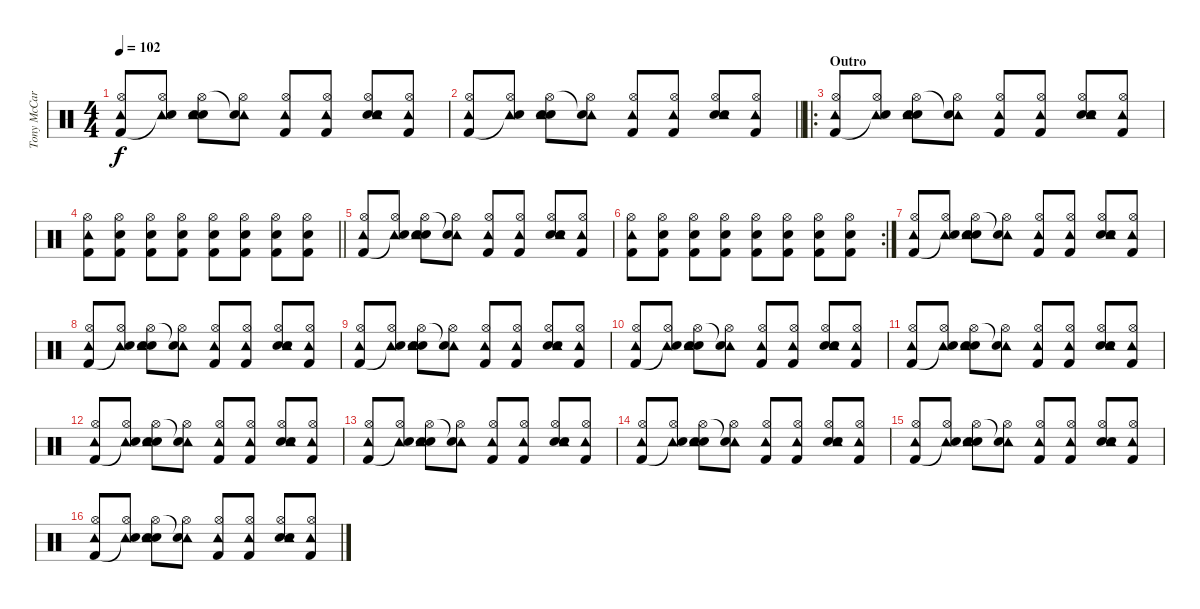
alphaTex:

\track ("Tony McCaroll" "Tony McCar") {instrument percussion}
\staff {score}
\articulation defaults
\ts (4 4)
\tempo 102
\clef neutral
\ks c
("Tambourine (hit)" "Hi-Hat (open)" "Kick (hit) 2").8{dy f} ("Tambourine (hit)" "Hi-Hat (open)" "Snare (hit)"{t}).8 ("Hand Clap (hit)" "Tambourine (hit)" "Hi-Hat (open)" "Electric Snare (hit)").8 ("Tambourine (hit)" "Hi-Hat (open)" "Snare (hit)"{t}).8 ("Tambourine (hit)" "Hi-Hat (open)" "Kick (hit) 2").8 ("Tambourine (hit)" "Hi-Hat (open)" "Kick (hit) 2").8 ("Hand Clap (hit)" "Tambourine (hit)" "Hi-Hat (open)" "Electric Snare (hit)").8 ("Tambourine (hit)" "Hi-Hat (open)" "Kick (hit) 2").8 |
\barLineRight lightlight
("Tambourine (hit)" "Hi-Hat (open)" "Kick (hit) 2").8 ("Tambourine (hit)" "Hi-Hat (open)" "Snare (hit)"{t}).8 ("Hand Clap (hit)" "Tambourine (hit)" "Hi-Hat (open)" "Electric Snare (hit)").8 ("Tambourine (hit)" "Hi-Hat (open)" "Snare (hit)"{t}).8 ("Tambourine (hit)" "Hi-Hat (open)" "Kick (hit) 2").8 ("Tambourine (hit)" "Hi-Hat (open)" "Kick (hit) 2").8 ("Hand Clap (hit)" "Tambourine (hit)" "Hi-Hat (open)" "Electric Snare (hit)").8 ("Tambourine (hit)" "Hi-Hat (open)" "Kick (hit) 2").8 |
\ro
\section ("" "Outro")
("Tambourine (hit)" "Hi-Hat (open)" "Kick (hit) 2").8 ("Tambourine (hit)" "Hi-Hat (open)" "Snare (hit)"{t}).8 ("Hand Clap (hit)" "Tambourine (hit)" "Hi-Hat (open)" "Electric Snare (hit)").8 ("Tambourine (hit)" "Hi-Hat (open)" "Snare (hit)"{t}).8 ("Tambourine (hit)" "Hi-Hat (open)" "Kick (hit) 2").8 ("Tambourine (hit)" "Hi-Hat (open)" "Kick (hit) 2").8 ("Hand Clap (hit)" "Tambourine (hit)" "Hi-Hat (open)" "Electric Snare (hit)").8 ("Tambourine (hit)" "Hi-Hat (open)" "Kick (hit) 2").8 |
\barLineRight lightlight
("Tambourine (hit)" "Hi-Hat (open)" "Kick (hit) 2").8 ("Hi-Hat (open)" "Electric Snare (hit)" "Kick (hit) 2").8 ("Hi-Hat (open)" "Electric Snare (hit)" "Kick (hit) 2").8 ("Hi-Hat (open)" "Electric Snare (hit)" "Kick (hit) 2").8 ("Hi-Hat (open)" "Electric Snare (hit)" "Kick (hit) 2").8 ("Hi-Hat (open)" "Electric Snare (hit)" "Kick (hit) 2").8 ("Hi-Hat (open)" "Electric Snare (hit)" "Kick (hit) 2").8 ("Hi-Hat (open)" "Electric Snare (hit)" "Kick (hit) 2").8 |
("Tambourine (hit)" "Hi-Hat (open)" "Kick (hit) 2").8 ("Tambourine (hit)" "Hi-Hat (open)" "Snare (hit)"{t}).8 ("Hand Clap (hit)" "Tambourine (hit)" "Hi-Hat (open)" "Electric Snare (hit)").8 ("Tambourine (hit)" "Hi-Hat (open)" "Snare (hit)"{t}).8 ("Tambourine (hit)" "Hi-Hat (open)" "Kick (hit) 2").8 ("Tambourine (hit)" "Hi-Hat (open)" "Kick (hit) 2").8 ("Hand Clap (hit)" "Tambourine (hit)" "Hi-Hat (open)" "Electric Snare (hit)").8 ("Tambourine (hit)" "Hi-Hat (open)" "Kick (hit) 2").8 |
\rc 2
("Tambourine (hit)" "Hi-Hat (open)" "Kick (hit) 2").8 ("Hi-Hat (open)" "Electric Snare (hit)" "Kick (hit) 2").8 ("Hi-Hat (open)" "Electric Snare (hit)" "Kick (hit) 2").8 ("Hi-Hat (open)" "Electric Snare (hit)" "Kick (hit) 2").8 ("Hi-Hat (open)" "Electric Snare (hit)" "Kick (hit) 2").8 ("Hi-Hat (open)" "Electric Snare (hit)" "Kick (hit) 2").8 ("Hi-Hat (open)" "Electric Snare (hit)" "Kick (hit) 2").8 ("Hi-Hat (open)" "Electric Snare (hit)" "Kick (hit) 2").8 |
("Tambourine (hit)" "Hi-Hat (open)" "Kick (hit) 2").8 ("Tambourine (hit)" "Hi-Hat (open)" "Snare (hit)"{t}).8 ("Hand Clap (hit)" "Tambourine (hit)" "Hi-Hat (open)" "Electric Snare (hit)").8 ("Tambourine (hit)" "Hi-Hat (open)" "Snare (hit)"{t}).8 ("Tambourine (hit)" "Hi-Hat (open)" "Kick (hit) 2").8 ("Tambourine (hit)" "Hi-Hat (open)" "Kick (hit) 2").8 ("Hand Clap (hit)" "Tambourine (hit)" "Hi-Hat (open)" "Electric Snare (hit)").8 ("Tambourine (hit)" "Hi-Hat (open)" "Kick (hit) 2").8 |
("Tambourine (hit)" "Hi-Hat (open)" "Kick (hit) 2").8 ("Tambourine (hit)" "Hi-Hat (open)" "Snare (hit)"{t}).8 ("Hand Clap (hit)" "Tambourine (hit)" "Hi-Hat (open)" "Electric Snare (hit)").8 ("Tambourine (hit)" "Hi-Hat (open)" "Snare (hit)"{t}).8 ("Tambourine (hit)" "Hi-Hat (open)" "Kick (hit) 2").8 ("Tambourine (hit)" "Hi-Hat (open)" "Kick (hit) 2").8 ("Hand Clap (hit)" "Tambourine (hit)" "Hi-Hat (open)" "Electric Snare (hit)").8 ("Tambourine (hit)" "Hi-Hat (open)" "Kick (hit) 2").8 |
("Tambourine (hit)" "Hi-Hat (open)" "Kick (hit) 2").8 ("Tambourine (hit)" "Hi-Hat (open)" "Snare (hit)"{t}).8 ("Hand Clap (hit)" "Tambourine (hit)" "Hi-Hat (open)" "Electric Snare (hit)").8 ("Tambourine (hit)" "Hi-Hat (open)" "Snare (hit)"{t}).8 ("Tambourine (hit)" "Hi-Hat (open)" "Kick (hit) 2").8 ("Tambourine (hit)" "Hi-Hat (open)" "Kick (hit) 2").8 ("Hand Clap (hit)" "Tambourine (hit)" "Hi-Hat (open)" "Electric Snare (hit)").8 ("Tambourine (hit)" "Hi-Hat (open)" "Kick (hit) 2").8 |
("Tambourine (hit)" "Hi-Hat (open)" "Kick (hit) 2").8 ("Tambourine (hit)" "Hi-Hat (open)" "Snare (hit)"{t}).8 ("Hand Clap (hit)" "Tambourine (hit)" "Hi-Hat (open)" "Electric Snare (hit)").8 ("Tambourine (hit)" "Hi-Hat (open)" "Snare (hit)"{t}).8 ("Tambourine (hit)" "Hi-Hat (open)" "Kick (hit) 2").8 ("Tambourine (hit)" "Hi-Hat (open)" "Kick (hit) 2").8 ("Hand Clap (hit)" "Tambourine (hit)" "Hi-Hat (open)" "Electric Snare (hit)").8 ("Tambourine (hit)" "Hi-Hat (open)" "Kick (hit) 2").8 |
("Tambourine (hit)" "Hi-Hat (open)" "Kick (hit) 2").8 ("Tambourine (hit)" "Hi-Hat (open)" "Snare (hit)"{t}).8 ("Hand Clap (hit)" "Tambourine (hit)" "Hi-Hat (open)" "Electric Snare (hit)").8 ("Tambourine (hit)" "Hi-Hat (open)" "Snare (hit)"{t}).8 ("Tambourine (hit)" "Hi-Hat (open)" "Kick (hit) 2").8 ("Tambourine (hit)" "Hi-Hat (open)" "Kick (hit) 2").8 ("Hand Clap (hit)" "Tambourine (hit)" "Hi-Hat (open)" "Electric Snare (hit)").8 ("Tambourine (hit)" "Hi-Hat (open)" "Kick (hit) 2").8 |
("Tambourine (hit)" "Hi-Hat (open)" "Kick (hit) 2").8 ("Tambourine (hit)" "Hi-Hat (open)" "Snare (hit)"{t}).8 ("Hand Clap (hit)" "Tambourine (hit)" "Hi-Hat (open)" "Electric Snare (hit)").8 ("Tambourine (hit)" "Hi-Hat (open)" "Snare (hit)"{t}).8 ("Tambourine (hit)" "Hi-Hat (open)" "Kick (hit) 2").8 ("Tambourine (hit)" "Hi-Hat (open)" "Kick (hit) 2").8 ("Hand Clap (hit)" "Tambourine (hit)" "Hi-Hat (open)" "Electric Snare (hit)").8 ("Tambourine (hit)" "Hi-Hat (open)" "Kick (hit) 2").8 |
("Tambourine (hit)" "Hi-Hat (open)" "Kick (hit) 2").8 ("Tambourine (hit)" "Hi-Hat (open)" "Snare (hit)"{t}).8 ("Hand Clap (hit)" "Tambourine (hit)" "Hi-Hat (open)" "Electric Snare (hit)").8 ("Tambourine (hit)" "Hi-Hat (open)" "Snare (hit)"{t}).8 ("Tambourine (hit)" "Hi-Hat (open)" "Kick (hit) 2").8 ("Tambourine (hit)" "Hi-Hat (open)" "Kick (hit) 2").8 ("Hand Clap (hit)" "Tambourine (hit)" "Hi-Hat (open)" "Electric Snare (hit)").8 ("Tambourine (hit)" "Hi-Hat (open)" "Kick (hit) 2").8 |
("Tambourine (hit)" "Hi-Hat (open)" "Kick (hit) 2").8 ("Tambourine (hit)" "Hi-Hat (open)" "Snare (hit)"{t}).8 ("Hand Clap (hit)" "Tambourine (hit)" "Hi-Hat (open)" "Electric Snare (hit)").8 ("Tambourine (hit)" "Hi-Hat (open)" "Snare (hit)"{t}).8 ("Tambourine (hit)" "Hi-Hat (open)" "Kick (hit) 2").8 ("Tambourine (hit)" "Hi-Hat (open)" "Kick (hit) 2").8 ("Hand Clap (hit)" "Tambourine (hit)" "Hi-Hat (open)" "Electric Snare (hit)").8 ("Tambourine (hit)" "Hi-Hat (open)" "Kick (hit) 2").8 |
("Tambourine (hit)" "Hi-Hat (open)" "Kick (hit) 2").8 ("Tambourine (hit)" "Hi-Hat (open)" "Snare (hit)"{t}).8 ("Hand Clap (hit)" "Tambourine (hit)" "Hi-Hat (open)" "Electric Snare (hit)").8 ("Tambourine (hit)" "Hi-Hat (open)" "Snare (hit)"{t}).8 ("Tambourine (hit)" "Hi-Hat (open)" "Kick (hit) 2").8 ("Tambourine (hit)" "Hi-Hat (open)" "Kick (hit) 2").8 ("Hand Clap (hit)" "Tambourine (hit)" "Hi-Hat (open)" "Electric Snare (hit)").8 ("Tambourine (hit)" "Hi-Hat (open)" "Kick (hit) 2").8 |
("Tambourine (hit)" "Hi-Hat (open)" "Kick (hit) 2").8 ("Tambourine (hit)" "Hi-Hat (open)" "Snare (hit)"{t}).8 ("Hand Clap (hit)" "Tambourine (hit)" "Hi-Hat (open)" "Electric Snare (hit)").8 ("Tambourine (hit)" "Hi-Hat (open)" "Snare (hit)"{t}).8 ("Tambourine (hit)" "Hi-Hat (open)" "Kick (hit) 2").8 ("Tambourine (hit)" "Hi-Hat (open)" "Kick (hit) 2").8 ("Hand Clap (hit)" "Tambourine (hit)" "Hi-Hat (open)" "Electric Snare (hit)").8 ("Tambourine (hit)" "Hi-Hat (open)" "Kick (hit) 2").8
